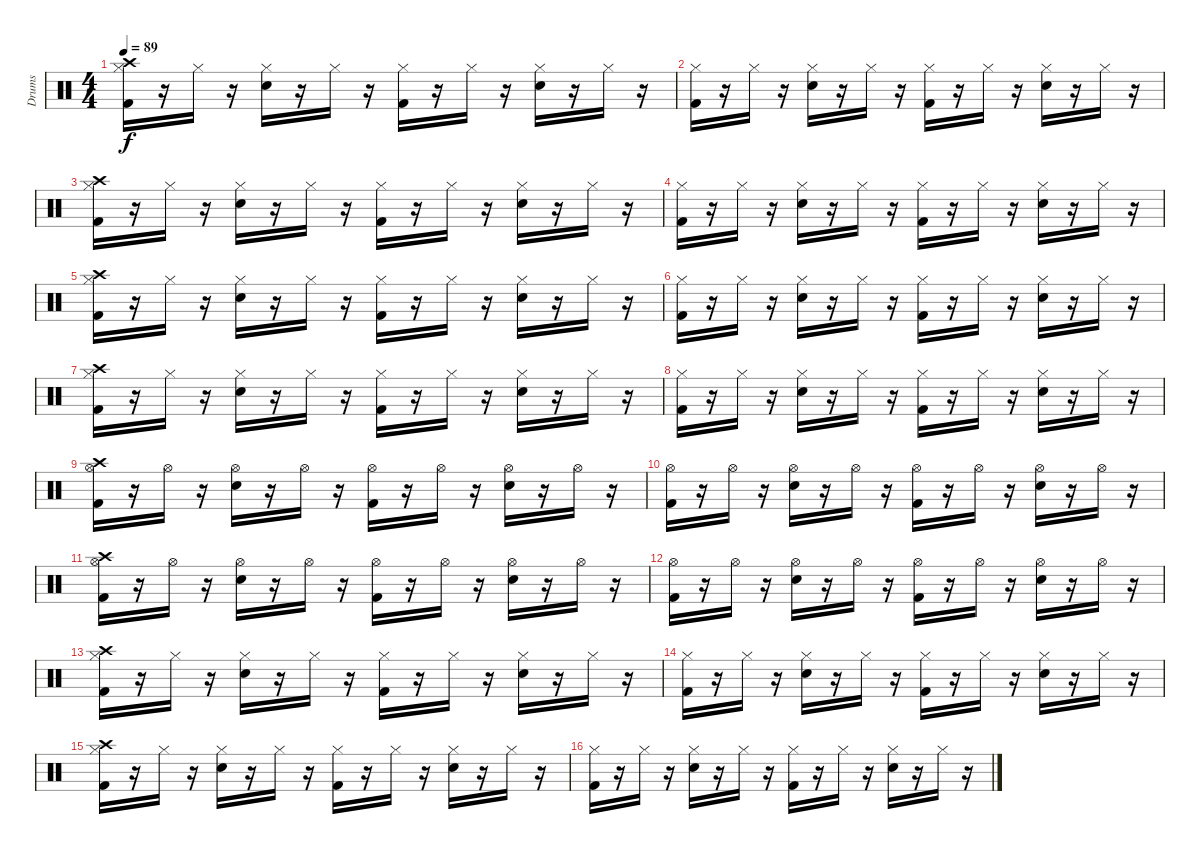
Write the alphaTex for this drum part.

\track ("Drums " "Drums ") {instrument percussion}
\staff {score}
\articulation defaults
\ts (4 4)
\tempo 89
\clef neutral
\ks c
("Kick (hit) 2" "Crash high (hit)" "Hi-Hat (closed)").16{dy f} r.16 "Hi-Hat (closed)".16 r.16 ("Snare (hit) 2" "Hi-Hat (closed)").16 r.16 "Hi-Hat (closed)".16 r.16 ("Kick (hit) 2" "Hi-Hat (closed)").16 r.16 "Hi-Hat (closed)".16 r.16 ("Snare (hit) 2" "Hi-Hat (closed)").16 r.16 "Hi-Hat (closed)".16 r.16 |
("Kick (hit) 2" "Hi-Hat (closed)").16 r.16 "Hi-Hat (closed)".16 r.16 ("Snare (hit) 2" "Hi-Hat (closed)").16 r.16 "Hi-Hat (closed)".16 r.16 ("Kick (hit) 2" "Hi-Hat (closed)").16 r.16 "Hi-Hat (closed)".16 r.16 ("Snare (hit) 2" "Hi-Hat (closed)").16 r.16 "Hi-Hat (closed)".16 r.16 |
("Kick (hit) 2" "Crash high (hit)" "Hi-Hat (closed)").16 r.16 "Hi-Hat (closed)".16 r.16 ("Snare (hit) 2" "Hi-Hat (closed)").16 r.16 "Hi-Hat (closed)".16 r.16 ("Kick (hit) 2" "Hi-Hat (closed)").16 r.16 "Hi-Hat (closed)".16 r.16 ("Snare (hit) 2" "Hi-Hat (closed)").16 r.16 "Hi-Hat (closed)".16 r.16 |
("Kick (hit) 2" "Hi-Hat (closed)").16 r.16 "Hi-Hat (closed)".16 r.16 ("Snare (hit) 2" "Hi-Hat (closed)").16 r.16 "Hi-Hat (closed)".16 r.16 ("Kick (hit) 2" "Hi-Hat (closed)").16 r.16 "Hi-Hat (closed)".16 r.16 ("Snare (hit) 2" "Hi-Hat (closed)").16 r.16 "Hi-Hat (closed)".16 r.16 |
("Kick (hit) 2" "Crash high (hit)" "Hi-Hat (closed)").16 r.16 "Hi-Hat (closed)".16 r.16 ("Snare (hit) 2" "Hi-Hat (closed)").16 r.16 "Hi-Hat (closed)".16 r.16 ("Kick (hit) 2" "Hi-Hat (closed)").16 r.16 "Hi-Hat (closed)".16 r.16 ("Snare (hit) 2" "Hi-Hat (closed)").16 r.16 "Hi-Hat (closed)".16 r.16 |
("Kick (hit) 2" "Hi-Hat (closed)").16 r.16 "Hi-Hat (closed)".16 r.16 ("Snare (hit) 2" "Hi-Hat (closed)").16 r.16 "Hi-Hat (closed)".16 r.16 ("Kick (hit) 2" "Hi-Hat (closed)").16 r.16 "Hi-Hat (closed)".16 r.16 ("Snare (hit) 2" "Hi-Hat (closed)").16 r.16 "Hi-Hat (closed)".16 r.16 |
("Kick (hit) 2" "Crash high (hit)" "Hi-Hat (closed)").16 r.16 "Hi-Hat (closed)".16 r.16 ("Snare (hit) 2" "Hi-Hat (closed)").16 r.16 "Hi-Hat (closed)".16 r.16 ("Kick (hit) 2" "Hi-Hat (closed)").16 r.16 "Hi-Hat (closed)".16 r.16 ("Snare (hit) 2" "Hi-Hat (closed)").16 r.16 "Hi-Hat (closed)".16 r.16 |
("Kick (hit) 2" "Hi-Hat (closed)").16 r.16 "Hi-Hat (closed)".16 r.16 ("Snare (hit) 2" "Hi-Hat (closed)").16 r.16 "Hi-Hat (closed)".16 r.16 ("Kick (hit) 2" "Hi-Hat (closed)").16 r.16 "Hi-Hat (closed)".16 r.16 ("Snare (hit) 2" "Hi-Hat (closed)").16 r.16 "Hi-Hat (closed)".16 r.16 |
("Kick (hit) 2" "Crash high (hit)" "Hi-Hat (open)").16 r.16 "Hi-Hat (open)".16 r.16 ("Snare (hit) 2" "Hi-Hat (open)").16 r.16 "Hi-Hat (open)".16 r.16 ("Kick (hit) 2" "Hi-Hat (open)").16 r.16 "Hi-Hat (open)".16 r.16 ("Snare (hit) 2" "Hi-Hat (open)").16 r.16 "Hi-Hat (open)".16 r.16 |
("Kick (hit) 2" "Hi-Hat (open)").16 r.16 "Hi-Hat (open)".16 r.16 ("Snare (hit) 2" "Hi-Hat (open)").16 r.16 "Hi-Hat (open)".16 r.16 ("Kick (hit) 2" "Hi-Hat (open)").16 r.16 "Hi-Hat (open)".16 r.16 ("Snare (hit) 2" "Hi-Hat (open)").16 r.16 "Hi-Hat (open)".16 r.16 |
("Kick (hit) 2" "Crash high (hit)" "Hi-Hat (open)").16 r.16 "Hi-Hat (open)".16 r.16 ("Snare (hit) 2" "Hi-Hat (open)").16 r.16 "Hi-Hat (open)".16 r.16 ("Kick (hit) 2" "Hi-Hat (open)").16 r.16 "Hi-Hat (open)".16 r.16 ("Snare (hit) 2" "Hi-Hat (open)").16 r.16 "Hi-Hat (open)".16 r.16 |
("Kick (hit) 2" "Hi-Hat (open)").16 r.16 "Hi-Hat (open)".16 r.16 ("Snare (hit) 2" "Hi-Hat (open)").16 r.16 "Hi-Hat (open)".16 r.16 ("Kick (hit) 2" "Hi-Hat (open)").16 r.16 "Hi-Hat (open)".16 r.16 ("Snare (hit) 2" "Hi-Hat (open)").16 r.16 "Hi-Hat (open)".16 r.16 |
("Kick (hit) 2" "Crash high (hit)" "Hi-Hat (closed)").16 r.16 "Hi-Hat (closed)".16 r.16 ("Snare (hit) 2" "Hi-Hat (closed)").16 r.16 "Hi-Hat (closed)".16 r.16 ("Kick (hit) 2" "Hi-Hat (closed)").16 r.16 "Hi-Hat (closed)".16 r.16 ("Snare (hit) 2" "Hi-Hat (closed)").16 r.16 "Hi-Hat (closed)".16 r.16 |
("Kick (hit) 2" "Hi-Hat (closed)").16 r.16 "Hi-Hat (closed)".16 r.16 ("Snare (hit) 2" "Hi-Hat (closed)").16 r.16 "Hi-Hat (closed)".16 r.16 ("Kick (hit) 2" "Hi-Hat (closed)").16 r.16 "Hi-Hat (closed)".16 r.16 ("Snare (hit) 2" "Hi-Hat (closed)").16 r.16 "Hi-Hat (closed)".16 r.16 |
("Kick (hit) 2" "Crash high (hit)" "Hi-Hat (closed)").16 r.16 "Hi-Hat (closed)".16 r.16 ("Snare (hit) 2" "Hi-Hat (closed)").16 r.16 "Hi-Hat (closed)".16 r.16 ("Kick (hit) 2" "Hi-Hat (closed)").16 r.16 "Hi-Hat (closed)".16 r.16 ("Snare (hit) 2" "Hi-Hat (closed)").16 r.16 "Hi-Hat (closed)".16 r.16 |
("Kick (hit) 2" "Hi-Hat (closed)").16 r.16 "Hi-Hat (closed)".16 r.16 ("Snare (hit) 2" "Hi-Hat (closed)").16 r.16 "Hi-Hat (closed)".16 r.16 ("Kick (hit) 2" "Hi-Hat (closed)").16 r.16 "Hi-Hat (closed)".16 r.16 ("Snare (hit) 2" "Hi-Hat (closed)").16 r.16 "Hi-Hat (closed)".16 r.16
